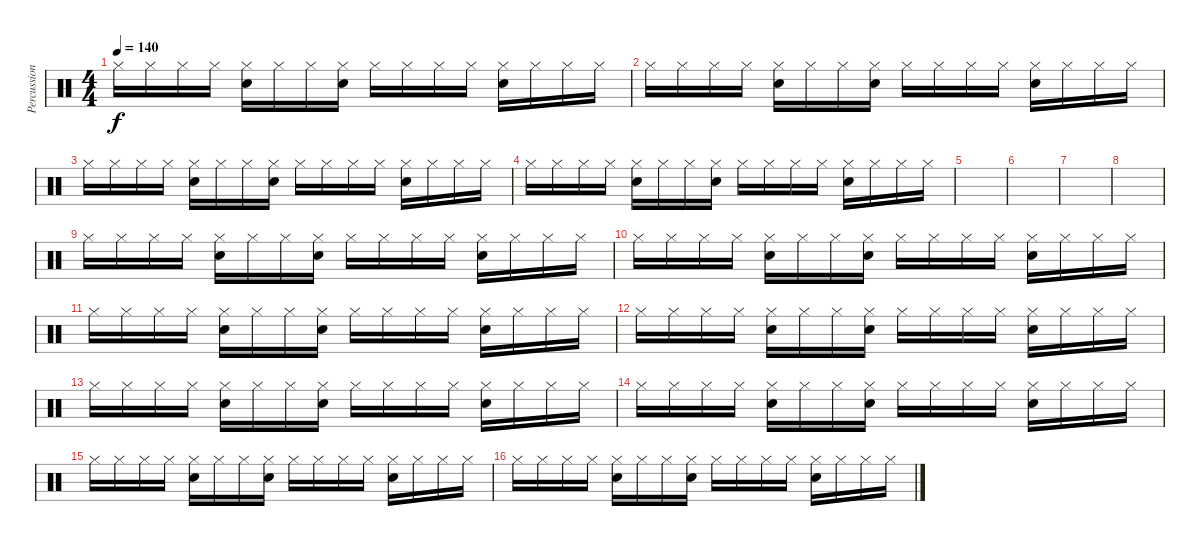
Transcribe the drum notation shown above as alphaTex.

\track ("Percussion" "Percussion") {instrument percussion}
\staff {score}
\articulation defaults
\ts (4 4)
\tempo 140
\clef neutral
\ks c "Hi-Hat (closed)".16{dy f} "Hi-Hat (closed)".16 "Hi-Hat (closed)".16 "Hi-Hat (closed)".16
("Hi-Hat (closed)" "Electric Snare (hit)").16 "Hi-Hat (closed)".16 "Hi-Hat (closed)".16 ("Hi-Hat (closed)" "Electric Snare (hit)").16 "Hi-Hat (closed)".16 "Hi-Hat (closed)".16 "Hi-Hat (closed)".16 "Hi-Hat (closed)".16 ("Hi-Hat (closed)" "Electric Snare (hit)").16 "Hi-Hat (closed)".16 "Hi-Hat (closed)".16 "Hi-Hat (closed)".16 |
"Hi-Hat (closed)".16 "Hi-Hat (closed)".16 "Hi-Hat (closed)".16 "Hi-Hat (closed)".16 ("Hi-Hat (closed)" "Electric Snare (hit)").16 "Hi-Hat (closed)".16 "Hi-Hat (closed)".16 ("Hi-Hat (closed)" "Electric Snare (hit)").16 "Hi-Hat (closed)".16 "Hi-Hat (closed)".16 "Hi-Hat (closed)".16 "Hi-Hat (closed)".16 ("Hi-Hat (closed)" "Electric Snare (hit)").16 "Hi-Hat (closed)".16 "Hi-Hat (closed)".16 "Hi-Hat (closed)".16 |
"Hi-Hat (closed)".16 "Hi-Hat (closed)".16 "Hi-Hat (closed)".16 "Hi-Hat (closed)".16 ("Hi-Hat (closed)" "Electric Snare (hit)").16 "Hi-Hat (closed)".16 "Hi-Hat (closed)".16 ("Hi-Hat (closed)" "Electric Snare (hit)").16 "Hi-Hat (closed)".16 "Hi-Hat (closed)".16 "Hi-Hat (closed)".16 "Hi-Hat (closed)".16 ("Hi-Hat (closed)" "Electric Snare (hit)").16 "Hi-Hat (closed)".16 "Hi-Hat (closed)".16 "Hi-Hat (closed)".16 |
"Hi-Hat (closed)".16 "Hi-Hat (closed)".16 "Hi-Hat (closed)".16 "Hi-Hat (closed)".16 ("Hi-Hat (closed)" "Electric Snare (hit)").16 "Hi-Hat (closed)".16 "Hi-Hat (closed)".16 ("Hi-Hat (closed)" "Electric Snare (hit)").16 "Hi-Hat (closed)".16 "Hi-Hat (closed)".16 "Hi-Hat (closed)".16 "Hi-Hat (closed)".16 ("Hi-Hat (closed)" "Electric Snare (hit)").16 "Hi-Hat (closed)".16 "Hi-Hat (closed)".16 "Hi-Hat (closed)".16 |
|
|
|
|
"Hi-Hat (closed)".16 "Hi-Hat (closed)".16 "Hi-Hat (closed)".16 "Hi-Hat (closed)".16 ("Hi-Hat (closed)" "Electric Snare (hit)").16 "Hi-Hat (closed)".16 "Hi-Hat (closed)".16 ("Hi-Hat (closed)" "Electric Snare (hit)").16 "Hi-Hat (closed)".16 "Hi-Hat (closed)".16 "Hi-Hat (closed)".16 "Hi-Hat (closed)".16 ("Hi-Hat (closed)" "Electric Snare (hit)").16 "Hi-Hat (closed)".16 "Hi-Hat (closed)".16 "Hi-Hat (closed)".16 |
"Hi-Hat (closed)".16 "Hi-Hat (closed)".16 "Hi-Hat (closed)".16 "Hi-Hat (closed)".16 ("Hi-Hat (closed)" "Electric Snare (hit)").16 "Hi-Hat (closed)".16 "Hi-Hat (closed)".16 ("Hi-Hat (closed)" "Electric Snare (hit)").16 "Hi-Hat (closed)".16 "Hi-Hat (closed)".16 "Hi-Hat (closed)".16 "Hi-Hat (closed)".16 ("Hi-Hat (closed)" "Electric Snare (hit)").16 "Hi-Hat (closed)".16 "Hi-Hat (closed)".16 "Hi-Hat (closed)".16 |
"Hi-Hat (closed)".16 "Hi-Hat (closed)".16 "Hi-Hat (closed)".16 "Hi-Hat (closed)".16 ("Hi-Hat (closed)" "Electric Snare (hit)").16 "Hi-Hat (closed)".16 "Hi-Hat (closed)".16 ("Hi-Hat (closed)" "Electric Snare (hit)").16 "Hi-Hat (closed)".16 "Hi-Hat (closed)".16 "Hi-Hat (closed)".16 "Hi-Hat (closed)".16 ("Hi-Hat (closed)" "Electric Snare (hit)").16 "Hi-Hat (closed)".16 "Hi-Hat (closed)".16 "Hi-Hat (closed)".16 |
"Hi-Hat (closed)".16 "Hi-Hat (closed)".16 "Hi-Hat (closed)".16 "Hi-Hat (closed)".16 ("Hi-Hat (closed)" "Electric Snare (hit)").16 "Hi-Hat (closed)".16 "Hi-Hat (closed)".16 ("Hi-Hat (closed)" "Electric Snare (hit)").16 "Hi-Hat (closed)".16 "Hi-Hat (closed)".16 "Hi-Hat (closed)".16 "Hi-Hat (closed)".16 ("Hi-Hat (closed)" "Electric Snare (hit)").16 "Hi-Hat (closed)".16 "Hi-Hat (closed)".16 "Hi-Hat (closed)".16 |
"Hi-Hat (closed)".16 "Hi-Hat (closed)".16 "Hi-Hat (closed)".16 "Hi-Hat (closed)".16 ("Hi-Hat (closed)" "Electric Snare (hit)").16 "Hi-Hat (closed)".16 "Hi-Hat (closed)".16 ("Hi-Hat (closed)" "Electric Snare (hit)").16 "Hi-Hat (closed)".16 "Hi-Hat (closed)".16 "Hi-Hat (closed)".16 "Hi-Hat (closed)".16 ("Hi-Hat (closed)" "Electric Snare (hit)").16 "Hi-Hat (closed)".16 "Hi-Hat (closed)".16 "Hi-Hat (closed)".16 |
"Hi-Hat (closed)".16 "Hi-Hat (closed)".16 "Hi-Hat (closed)".16 "Hi-Hat (closed)".16 ("Hi-Hat (closed)" "Electric Snare (hit)").16 "Hi-Hat (closed)".16 "Hi-Hat (closed)".16 ("Hi-Hat (closed)" "Electric Snare (hit)").16 "Hi-Hat (closed)".16 "Hi-Hat (closed)".16 "Hi-Hat (closed)".16 "Hi-Hat (closed)".16 ("Hi-Hat (closed)" "Electric Snare (hit)").16 "Hi-Hat (closed)".16 "Hi-Hat (closed)".16 "Hi-Hat (closed)".16 |
"Hi-Hat (closed)".16 "Hi-Hat (closed)".16 "Hi-Hat (closed)".16 "Hi-Hat (closed)".16 ("Hi-Hat (closed)" "Electric Snare (hit)").16 "Hi-Hat (closed)".16 "Hi-Hat (closed)".16 ("Hi-Hat (closed)" "Electric Snare (hit)").16 "Hi-Hat (closed)".16 "Hi-Hat (closed)".16 "Hi-Hat (closed)".16 "Hi-Hat (closed)".16 ("Hi-Hat (closed)" "Electric Snare (hit)").16 "Hi-Hat (closed)".16 "Hi-Hat (closed)".16 "Hi-Hat (closed)".16 |
"Hi-Hat (closed)".16 "Hi-Hat (closed)".16 "Hi-Hat (closed)".16 "Hi-Hat (closed)".16 ("Hi-Hat (closed)" "Electric Snare (hit)").16 "Hi-Hat (closed)".16 "Hi-Hat (closed)".16 ("Hi-Hat (closed)" "Electric Snare (hit)").16 "Hi-Hat (closed)".16 "Hi-Hat (closed)".16 "Hi-Hat (closed)".16 "Hi-Hat (closed)".16 ("Hi-Hat (closed)" "Electric Snare (hit)").16 "Hi-Hat (closed)".16 "Hi-Hat (closed)".16 "Hi-Hat (closed)".16
